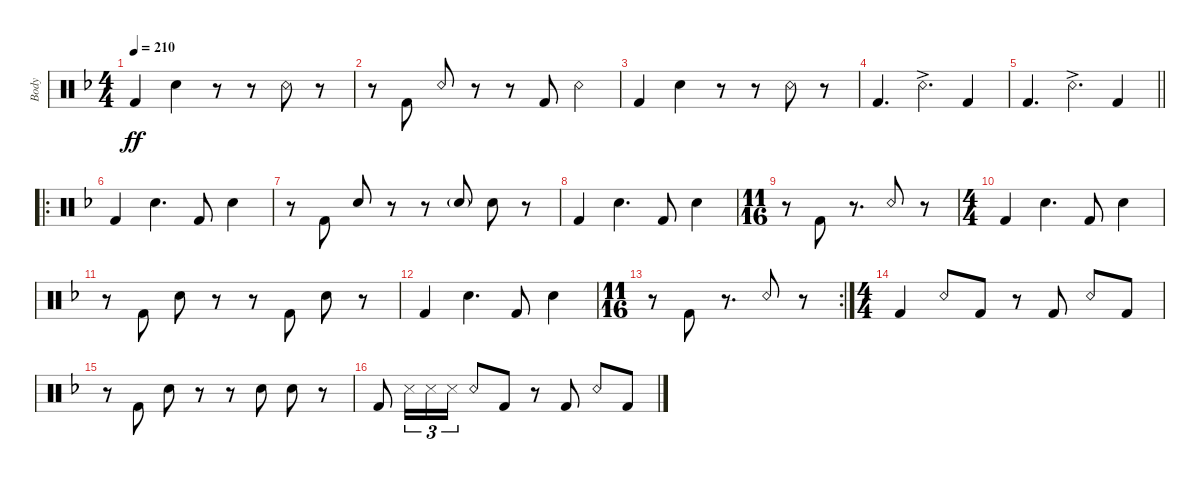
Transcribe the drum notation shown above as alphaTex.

\defaultSystemsLayout 2
\bracketExtendMode groupsimilarinstruments
\otherSystemsTrackNameOrientation horizontal
\track ("Body" "Body") {instrument percussion}
\staff {score}
\articulation defaults
\ts (4 4)
\scale
1.05932
\tempo 210
\accidentals auto
\clef neutral
\ottava regular
\simile none
\scale
0.333333
\ks dminor "Kick (hit) 2"{acc forcenatural}.4{dy ff beam Up} "Snare (hit) 2"{acc forcenatural}.4{beam Down}
r.8{beam Down} r.8{beam Down} "Snare (rim shot)"{acc forcenatural}.8{beam Down} r.8{beam Down} |
\scale
0.940678
\scale
0.333333 r.8{beam Down} "Kick (hit) 2"{acc forcenatural}.8{beam Up} "Snare (rim shot)"{acc forcenatural}.8{beam Up} r.8{beam Up} r.8{beam Up} "Kick (hit) 2"{acc forcenatural}.8{beam Up} "Snare (rim shot)"{acc forcenatural}.4{beam Down} |
\scale
1.04787
\scale
0.333333 "Kick (hit) 2"{acc forcenatural}.4{beam Up} "Snare (hit) 2"{acc forcenatural}.4{beam Down} r.8{beam Down} r.8{beam Down} "Snare (rim shot)"{acc forcenatural}.8{beam Down} r.8{beam Down} |
\scale
0.952125
\scale
0.333333 "Kick (hit) 2"{acc forcenatural}.4{d beam Up} "Snare (rim shot)"{ac acc forcenatural}.4{d beam Down} "Kick (hit) 2"{acc forcenatural}.4{beam Up} |
\scale
1.04754
\scale
0.333333
\barLineRight lightlight "Kick (hit) 2"{acc forcenatural}.4{d beam Up} "Snare (rim shot)"{ac acc forcenatural}.4{d beam Down} "Kick (hit) 2"{acc forcenatural}.4{beam Up}
|
\ro
\scale
0.952462 "Kick (hit) 2"{acc forcenatural}.4{beam Up} "Snare (hit) 2"{acc forcenatural}.4{d beam Down} "Kick (hit) 2"{acc forcenatural}.8{beam Up} "Snare (hit) 2"{acc forcenatural}.4{beam Down} |
\scale
1.04804 r.8{beam Down} "Kick (hit) 2"{acc forcenatural}.8{beam Up} "Snare (hit) 2"{acc forcenatural}.8{beam Up} r.8{beam Up} r.8{beam Up} "Snare (hit) 2"{g acc forcenatural}.8{beam Down} "Snare (hit) 2"{acc forcenatural}.8{beam Down} r.8{beam Down} |
\scale
0.951961 "Kick (hit) 2"{acc forcenatural}.4{beam Up} "Snare (hit) 2"{acc forcenatural}.4{d beam Down} "Kick (hit) 2"{acc forcenatural}.8{beam Up} "Snare (hit) 2"{acc forcenatural}.4{beam Down} |
\ts (11 16)
\scale
1.05949 r.8{beam Down} "Kick (hit) 2"{acc forcenatural}.8{beam Up} r.8{d beam Up} "Snare (rim shot)"{acc forcenatural}.8{beam Down} r.8{beam Down} |
\ts (4 4)
\scale
0.940513 "Kick (hit) 2"{acc forcenatural}.4{beam Up} "Snare (hit) 2"{acc forcenatural}.4{d beam Down} "Kick (hit) 2"{acc forcenatural}.8{beam Up} "Snare (hit) 2"{acc forcenatural}.4{beam Down} |
\scale
1.04804 r.8{beam Down} "Kick (hit) 2"{acc forcenatural}.8{beam Up} "Snare (hit) 2"{acc forcenatural}.8{beam Down} r.8{beam Down} r.8{beam Down} "Kick (hit) 2"{acc forcenatural}.8{beam Up} "Snare (hit) 2"{acc forcenatural}.8{beam Down} r.8{beam Down} |
\scale
0.951961 "Kick (hit) 2"{acc forcenatural}.4{beam Up} "Snare (hit) 2"{acc forcenatural}.4{d beam Down} "Kick (hit) 2"{acc forcenatural}.8{beam Up} "Snare (hit) 2"{acc forcenatural}.4{beam Down} |
\rc 2
\ts (11 16)
\scale
1.07787 r.8{beam Down} "Kick (hit) 2"{acc forcenatural}.8{beam Up} r.8{d beam Up} "Snare (rim shot)"{acc forcenatural}.8{beam Down} r.8{beam Down} |
\ts (4 4)
\scale
0.92213 "Kick (hit) 2"{acc forcenatural}.4{beam Up} "Snare (rim shot)"{acc forcenatural}.8{beam Up} "Kick (hit) 2"{acc forcenatural}.8{beam Up} r.8{beam Up} "Kick (hit) 2"{acc forcenatural}.8{beam Up} "Snare (rim shot)"{acc forcenatural}.8{beam Up} "Kick (hit) 2"{acc forcenatural}.8{beam Up} |
\scale
1.05422 r.8{beam Down} "Kick (hit) 2"{acc forcenatural}.8{beam Up} "Snare (hit) 2"{acc forcenatural}.8{beam Down} r.8{beam Down} r.8{beam Down} "Snare (hit) 2"{acc forcenatural}.8{beam Down} "Snare (hit) 2"{acc forcenatural}.8{beam Down} r.8{beam Down} |
\scale
0.945776 "Kick (hit) 2"{acc forcenatural}.8{beam Up} "Snare (side stick) 3"{acc forcenatural}.16{tu (3 2) beam Down} "Snare (side stick) 3"{acc forcenatural}.16{tu (3 2) beam Down} "Snare (side stick) 3"{acc forcenatural}.16{tu (3 2) beam Down} "Snare (rim shot)"{acc forcenatural}.8{beam Up} "Kick (hit) 2"{acc forcenatural}.8{beam Up} r.8{beam Up} "Kick (hit) 2"{acc forcenatural}.8{beam Up} "Snare (rim shot)"{acc forcenatural}.8{beam Up} "Kick (hit) 2"{acc forcenatural}.8{beam Up}
